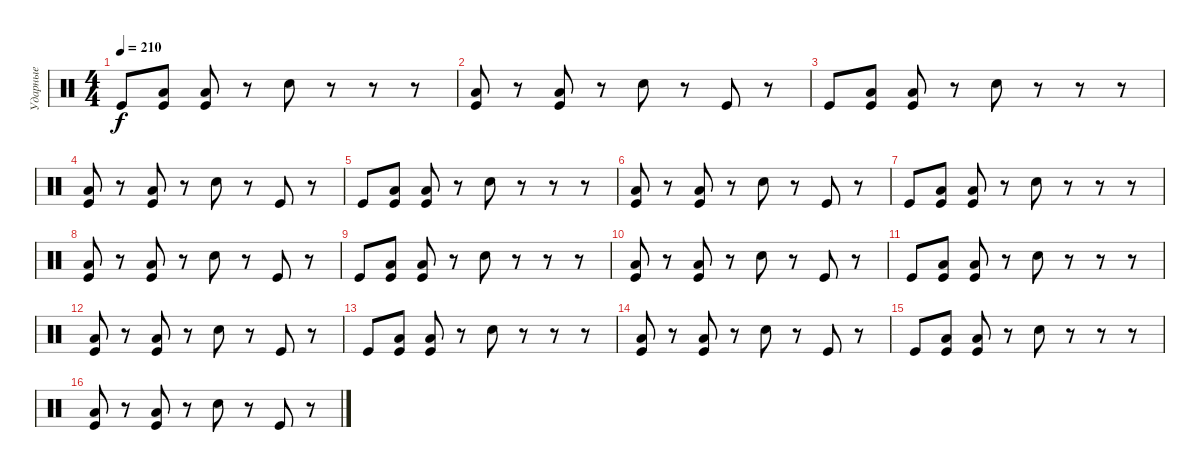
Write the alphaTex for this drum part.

\track ("Ударные" "Ударные") {instrument percussion}
\staff {score}
\articulation defaults
\ts (4 4)
\tempo 210
\clef neutral
\ks c "Kick (hit)".8{dy f}
("Low Tom (hit)" "Kick (hit)").8 ("Low Tom (hit)" "Kick (hit)").8 r.8 "Electric Snare (hit)".8 r.8 r.8 r.8 |
("Low Tom (hit)" "Kick (hit)").8 r.8 ("Low Tom (hit)" "Kick (hit)").8 r.8 "Electric Snare (hit)".8 r.8 "Kick (hit)".8 r.8 |
"Kick (hit)".8 ("Low Tom (hit)" "Kick (hit)").8 ("Low Tom (hit)" "Kick (hit)").8 r.8 "Electric Snare (hit)".8 r.8 r.8 r.8 |
("Low Tom (hit)" "Kick (hit)").8 r.8 ("Low Tom (hit)" "Kick (hit)").8 r.8 "Electric Snare (hit)".8 r.8 "Kick (hit)".8 r.8 |
"Kick (hit)".8 ("Low Tom (hit)" "Kick (hit)").8 ("Low Tom (hit)" "Kick (hit)").8 r.8 "Electric Snare (hit)".8 r.8 r.8 r.8 |
("Low Tom (hit)" "Kick (hit)").8 r.8 ("Low Tom (hit)" "Kick (hit)").8 r.8 "Electric Snare (hit)".8 r.8 "Kick (hit)".8 r.8 |
"Kick (hit)".8 ("Low Tom (hit)" "Kick (hit)").8 ("Low Tom (hit)" "Kick (hit)").8 r.8 "Electric Snare (hit)".8 r.8 r.8 r.8 |
("Low Tom (hit)" "Kick (hit)").8 r.8 ("Low Tom (hit)" "Kick (hit)").8 r.8 "Electric Snare (hit)".8 r.8 "Kick (hit)".8 r.8 |
"Kick (hit)".8 ("Low Tom (hit)" "Kick (hit)").8 ("Low Tom (hit)" "Kick (hit)").8 r.8 "Electric Snare (hit)".8 r.8 r.8 r.8 |
("Low Tom (hit)" "Kick (hit)").8 r.8 ("Low Tom (hit)" "Kick (hit)").8 r.8 "Electric Snare (hit)".8 r.8 "Kick (hit)".8 r.8 |
"Kick (hit)".8 ("Low Tom (hit)" "Kick (hit)").8 ("Low Tom (hit)" "Kick (hit)").8 r.8 "Electric Snare (hit)".8 r.8 r.8 r.8 |
("Low Tom (hit)" "Kick (hit)").8 r.8 ("Low Tom (hit)" "Kick (hit)").8 r.8 "Electric Snare (hit)".8 r.8 "Kick (hit)".8 r.8 |
"Kick (hit)".8 ("Low Tom (hit)" "Kick (hit)").8 ("Low Tom (hit)" "Kick (hit)").8 r.8 "Electric Snare (hit)".8 r.8 r.8 r.8 |
("Low Tom (hit)" "Kick (hit)").8 r.8 ("Low Tom (hit)" "Kick (hit)").8 r.8 "Electric Snare (hit)".8 r.8 "Kick (hit)".8 r.8 |
"Kick (hit)".8 ("Low Tom (hit)" "Kick (hit)").8 ("Low Tom (hit)" "Kick (hit)").8 r.8 "Electric Snare (hit)".8 r.8 r.8 r.8 |
("Low Tom (hit)" "Kick (hit)").8 r.8 ("Low Tom (hit)" "Kick (hit)").8 r.8 "Electric Snare (hit)".8 r.8 "Kick (hit)".8 r.8
